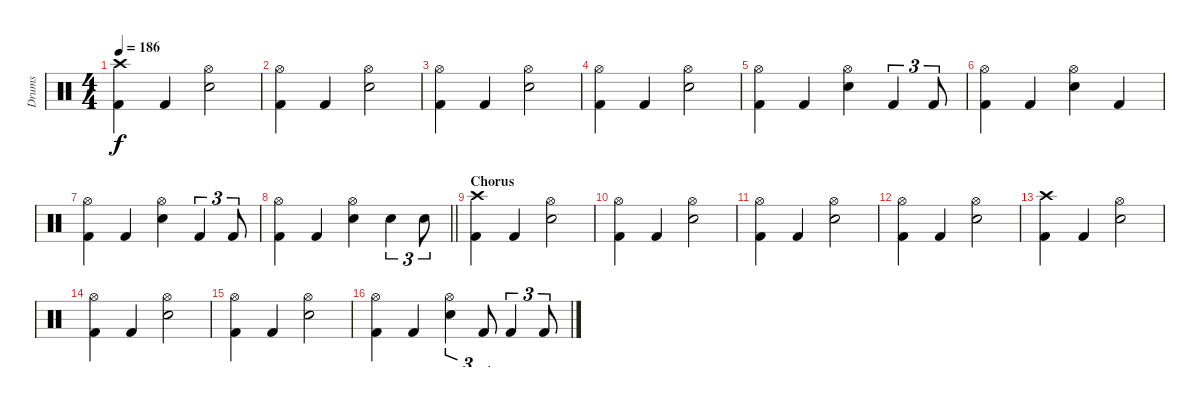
\track ("Drums" "Drums") {instrument percussion}
\staff {score}
\articulation defaults
\ts (4 4)
\tempo 186
\clef neutral
\ks c
("Crash high (hit)" "Kick (hit) 2").4{dy f} "Kick (hit) 2".4 ("Hi-Hat (open)" "Electric Snare (hit)").2 |
("Hi-Hat (open)" "Kick (hit) 2").4 "Kick (hit) 2".4 ("Hi-Hat (open)" "Electric Snare (hit)").2 |
("Hi-Hat (open)" "Kick (hit) 2").4 "Kick (hit) 2".4 ("Hi-Hat (open)" "Electric Snare (hit)").2 |
("Hi-Hat (open)" "Kick (hit) 2").4 "Kick (hit) 2".4 ("Hi-Hat (open)" "Electric Snare (hit)").2 |
("Hi-Hat (open)" "Kick (hit) 2").4 "Kick (hit) 2".4 ("Hi-Hat (open)" "Electric Snare (hit)").4 "Kick (hit) 2".4{tu (3 2)} "Kick (hit) 2".8{tu (3 2)} |
("Hi-Hat (open)" "Kick (hit) 2").4 "Kick (hit) 2".4 ("Hi-Hat (open)" "Electric Snare (hit)").4 "Kick (hit) 2".4 |
("Hi-Hat (open)" "Kick (hit) 2").4 "Kick (hit) 2".4 ("Hi-Hat (open)" "Electric Snare (hit)").4 "Kick (hit) 2".4{tu (3 2)} "Kick (hit) 2".8{tu (3 2)} |
\barLineRight lightlight
("Hi-Hat (open)" "Kick (hit) 2").4 "Kick (hit) 2".4 ("Hi-Hat (open)" "Electric Snare (hit)").4 "Electric Snare (hit)".4{tu (3 2)} "Electric Snare (hit)".8{tu (3 2)} |
\section ("" "Chorus")
("Crash high (hit)" "Kick (hit) 2").4 "Kick (hit) 2".4 ("Hi-Hat (open)" "Electric Snare (hit)").2 |
("Hi-Hat (open)" "Kick (hit) 2").4 "Kick (hit) 2".4 ("Hi-Hat (open)" "Electric Snare (hit)").2 |
("Hi-Hat (open)" "Kick (hit) 2").4 "Kick (hit) 2".4 ("Hi-Hat (open)" "Electric Snare (hit)").2 |
("Hi-Hat (open)" "Kick (hit) 2").4 "Kick (hit) 2".4 ("Hi-Hat (open)" "Electric Snare (hit)").2 |
("Crash high (hit)" "Kick (hit) 2").4 "Kick (hit) 2".4 ("Hi-Hat (open)" "Electric Snare (hit)").2 |
("Hi-Hat (open)" "Kick (hit) 2").4 "Kick (hit) 2".4 ("Hi-Hat (open)" "Electric Snare (hit)").2 |
("Hi-Hat (open)" "Kick (hit) 2").4 "Kick (hit) 2".4 ("Hi-Hat (open)" "Electric Snare (hit)").2 |
("Hi-Hat (open)" "Kick (hit) 2").4 "Kick (hit) 2".4 ("Hi-Hat (open)" "Electric Snare (hit)").4{tu (3 2)} "Kick (hit) 2".8{tu (3 2)} "Kick (hit) 2".4{tu (3 2)} "Kick (hit) 2".8{tu (3 2)}
